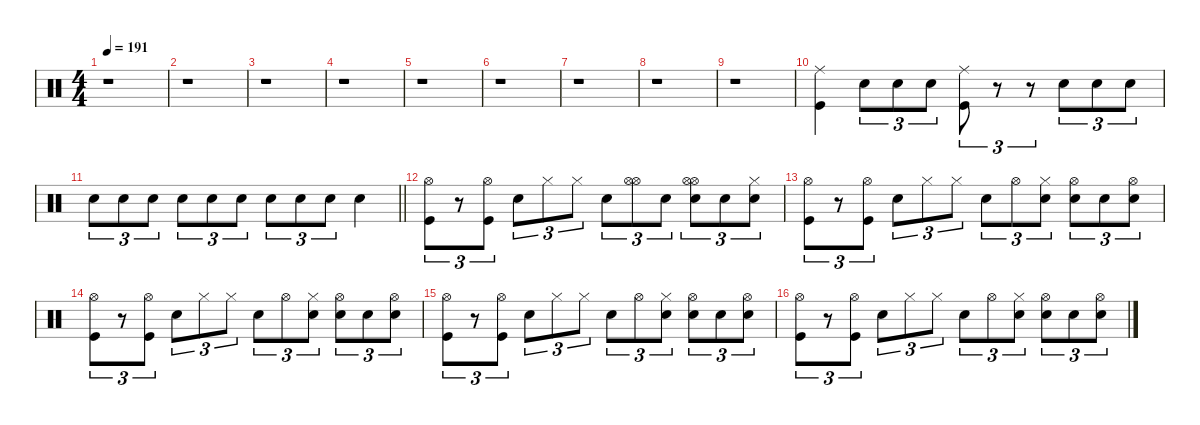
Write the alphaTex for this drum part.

\defaultSystemsLayout 4
\hideDynamics
\bracketExtendMode nobrackets
\singleTrackTrackNamePolicy hidden
\multiTrackTrackNamePolicy hidden
\firstSystemTrackNameMode fullname
\firstSystemTrackNameOrientation horizontal
\otherSystemsTrackNameOrientation horizontal
\track ("Drumkit" "drm.") {instrument percussion}
\staff {score}
\articulation defaults
\ts (4 4)
\tempo 191
\clef neutral
\ks c
r.1{dy f beam Down} |
r.1{beam Down} |
r.1{beam Down} |
r.1{beam Down} |
r.1{beam Down} |
r.1{beam Down} |
r.1{beam Down} |
r.1{beam Down} |
r.1{beam Down} |
("Kick (hit)" "Ride (middle)").4{dy mp beam Down} "Snare (hit) 2".8{tu (3 2) dy p beam Down} "Snare (hit) 2".8{tu (3 2) beam Down} "Snare (hit) 2".8{tu (3 2) beam Down} ("Ride (middle)" "Kick (hit)").8{tu (3 2) dy mp beam Down} r.8{tu (3 2) beam Down} r.8{tu (3 2) beam Down} "Snare (hit) 2".8{tu (3 2) dy f beam Down} "Snare (hit) 2".8{tu (3 2) beam Down} "Snare (hit) 2".8{tu (3 2) beam Down} |
\barLineRight lightlight "Snare (hit) 2".8{tu (3 2) dy mf beam Down} "Snare (hit) 2".8{tu (3 2) dy p beam Down} "Snare (hit) 2".8{tu (3 2) beam Down} "Snare (hit) 2".8{tu (3 2) dy mf beam Down} "Snare (hit) 2".8{tu (3 2) dy p beam Down} "Snare (hit) 2".8{tu (3 2) beam Down} "Snare (hit) 2".8{tu (3 2) dy mp beam Down} "Snare (hit) 2".8{tu (3 2) dy mf beam Down} "Snare (hit) 2".8{tu (3 2) dy f beam Down} "Snare (hit) 2".4{beam Down}
|
("Kick (hit)" "Hi-Hat (open)").8{tu (3 2) dy mf beam Down} r.8{tu (3 2) beam Down} ("Kick (hit)" "Hi-Hat (open)").8{tu (3 2) beam Down} "Snare (hit) 2".8{tu (3 2) dy mp beam Down} "Hi-Hat (closed)".8{tu (3 2) dy f beam Down} "Hi-Hat (closed)".8{tu (3 2) beam Down} "Snare (hit) 2".8{tu (3 2) beam Down} ("Hi-Hat (open)" "Hi-Hat (open)").8{tu (3 2) beam Down} "Snare (hit) 2".8{tu (3 2) dy mp beam Down} ("Hi-Hat (open)" "Hi-Hat (open)" "Snare (hit) 2").8{tu (3 2) dy f beam Down} "Snare (hit) 2".8{tu (3 2) dy mp beam Down} ("Hi-Hat (closed)" "Snare (hit) 2").8{tu (3 2) dy f beam Down} |
("Kick (hit)" "Hi-Hat (open)").8{tu (3 2) dy mf beam Down} r.8{tu (3 2) beam Down} ("Kick (hit)" "Hi-Hat (open)").8{tu (3 2) beam Down} "Snare (hit) 2".8{tu (3 2) dy mp beam Down} "Hi-Hat (closed)".8{tu (3 2) beam Down} "Hi-Hat (closed)".8{tu (3 2) beam Down} "Snare (hit) 2".8{tu (3 2) dy f beam Down} "Hi-Hat (open)".8{tu (3 2) dy mp beam Down} ("Hi-Hat (closed)" "Snare (hit) 2").8{tu (3 2) dy p beam Down} ("Hi-Hat (open)" "Snare (hit) 2").8{tu (3 2) dy mp beam Down} "Snare (hit) 2".8{tu (3 2) beam Down} ("Snare (hit) 2" "Hi-Hat (open)").8{tu (3 2) beam Down} |
("Kick (hit)" "Hi-Hat (open)").8{tu (3 2) dy mf beam Down} r.8{tu (3 2) beam Down} ("Kick (hit)" "Hi-Hat (open)").8{tu (3 2) beam Down} "Snare (hit) 2".8{tu (3 2) dy mp beam Down} "Hi-Hat (closed)".8{tu (3 2) beam Down} "Hi-Hat (closed)".8{tu (3 2) beam Down} "Snare (hit) 2".8{tu (3 2) dy f beam Down} "Hi-Hat (open)".8{tu (3 2) dy mp beam Down} ("Hi-Hat (closed)" "Snare (hit) 2").8{tu (3 2) dy p beam Down} ("Hi-Hat (open)" "Snare (hit) 2").8{tu (3 2) dy mp beam Down} "Snare (hit) 2".8{tu (3 2) beam Down} ("Snare (hit) 2" "Hi-Hat (open)").8{tu (3 2) beam Down} |
("Kick (hit)" "Hi-Hat (open)").8{tu (3 2) dy mf beam Down} r.8{tu (3 2) beam Down} ("Kick (hit)" "Hi-Hat (open)").8{tu (3 2) beam Down} "Snare (hit) 2".8{tu (3 2) dy mp beam Down} "Hi-Hat (closed)".8{tu (3 2) beam Down} "Hi-Hat (closed)".8{tu (3 2) beam Down} "Snare (hit) 2".8{tu (3 2) dy f beam Down} "Hi-Hat (open)".8{tu (3 2) dy mp beam Down} ("Hi-Hat (closed)" "Snare (hit) 2").8{tu (3 2) dy p beam Down} ("Hi-Hat (open)" "Snare (hit) 2").8{tu (3 2) dy mp beam Down} "Snare (hit) 2".8{tu (3 2) beam Down} ("Snare (hit) 2" "Hi-Hat (open)").8{tu (3 2) beam Down} |
("Kick (hit)" "Hi-Hat (open)").8{tu (3 2) dy mf beam Down} r.8{tu (3 2) beam Down} ("Kick (hit)" "Hi-Hat (open)").8{tu (3 2) beam Down} "Snare (hit) 2".8{tu (3 2) dy mp beam Down} "Hi-Hat (closed)".8{tu (3 2) beam Down} "Hi-Hat (closed)".8{tu (3 2) beam Down} "Snare (hit) 2".8{tu (3 2) dy f beam Down} "Hi-Hat (open)".8{tu (3 2) dy mp beam Down} ("Hi-Hat (closed)" "Snare (hit) 2").8{tu (3 2) dy p beam Down} ("Hi-Hat (open)" "Snare (hit) 2").8{tu (3 2) dy mp beam Down} "Snare (hit) 2".8{tu (3 2) beam Down} ("Snare (hit) 2" "Hi-Hat (open)").8{tu (3 2) beam Down}
